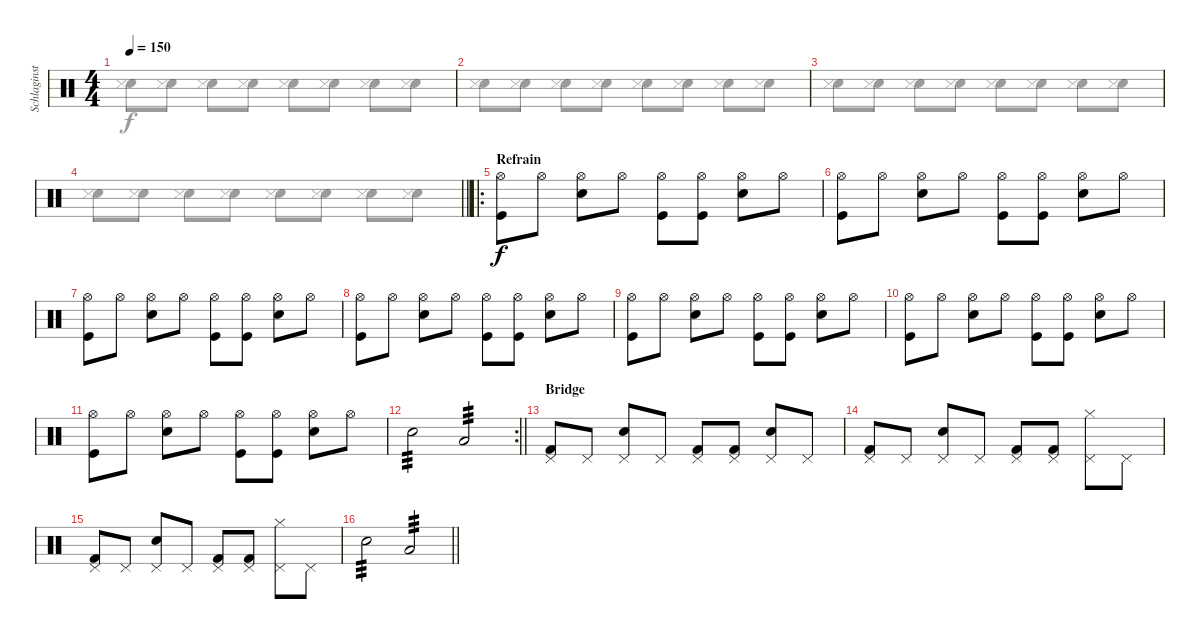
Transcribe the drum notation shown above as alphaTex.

\track ("Schlaginstrumente - Auswahl" "Schlaginst") {instrument percussion}
\staff {score}
\articulation defaults
\voice
\ts (4 4)
\tempo 150
\clef neutral
\ks c
|
|
|
\barLineRight lightlight
|
\ro
\section ("" "Refrain")
("Hi-Hat (open)" "Kick (hit)").8 "Hi-Hat (open)".8 ("Hi-Hat (open)" "Electric Snare (hit)").8 "Hi-Hat (open)".8 ("Hi-Hat (open)" "Kick (hit)").8 ("Hi-Hat (open)" "Kick (hit)").8 ("Hi-Hat (open)" "Electric Snare (hit)").8 "Hi-Hat (open)".8 |
("Hi-Hat (open)" "Kick (hit)").8 "Hi-Hat (open)".8 ("Hi-Hat (open)" "Electric Snare (hit)").8 "Hi-Hat (open)".8 ("Hi-Hat (open)" "Kick (hit)").8 ("Hi-Hat (open)" "Kick (hit)").8 ("Hi-Hat (open)" "Electric Snare (hit)").8 "Hi-Hat (open)".8 |
("Hi-Hat (open)" "Kick (hit)").8 "Hi-Hat (open)".8 ("Hi-Hat (open)" "Electric Snare (hit)").8 "Hi-Hat (open)".8 ("Hi-Hat (open)" "Kick (hit)").8 ("Hi-Hat (open)" "Kick (hit)").8 ("Hi-Hat (open)" "Electric Snare (hit)").8 "Hi-Hat (open)".8 |
("Hi-Hat (open)" "Kick (hit)").8 "Hi-Hat (open)".8 ("Hi-Hat (open)" "Electric Snare (hit)").8 "Hi-Hat (open)".8 ("Hi-Hat (open)" "Kick (hit)").8 ("Hi-Hat (open)" "Kick (hit)").8 ("Hi-Hat (open)" "Electric Snare (hit)").8 "Hi-Hat (open)".8 |
("Hi-Hat (open)" "Kick (hit)").8 "Hi-Hat (open)".8 ("Hi-Hat (open)" "Electric Snare (hit)").8 "Hi-Hat (open)".8 ("Hi-Hat (open)" "Kick (hit)").8 ("Hi-Hat (open)" "Kick (hit)").8 ("Hi-Hat (open)" "Electric Snare (hit)").8 "Hi-Hat (open)".8 |
("Hi-Hat (open)" "Kick (hit)").8 "Hi-Hat (open)".8 ("Hi-Hat (open)" "Electric Snare (hit)").8 "Hi-Hat (open)".8 ("Hi-Hat (open)" "Kick (hit)").8 ("Hi-Hat (open)" "Kick (hit)").8 ("Hi-Hat (open)" "Electric Snare (hit)").8 "Hi-Hat (open)".8 |
("Hi-Hat (open)" "Kick (hit)").8 "Hi-Hat (open)".8 ("Hi-Hat (open)" "Electric Snare (hit)").8 "Hi-Hat (open)".8 ("Hi-Hat (open)" "Kick (hit)").8 ("Hi-Hat (open)" "Kick (hit)").8 ("Hi-Hat (open)" "Electric Snare (hit)").8 "Hi-Hat (open)".8 |
\rc 2
\barLineRight lightlight "Electric Snare (hit)".2{tp 3} "Low Tom (hit)".2{tp 3}
|
\section ("" "Bridge")
("Pedal Hi-Hat (hit)" "Kick (hit) 2").8 "Pedal Hi-Hat (hit)".8 ("Pedal Hi-Hat (hit)" "Electric Snare (hit)").8 "Pedal Hi-Hat (hit)".8 ("Pedal Hi-Hat (hit)" "Kick (hit) 2").8 ("Pedal Hi-Hat (hit)" "Kick (hit) 2").8 ("Pedal Hi-Hat (hit)" "Electric Snare (hit)").8 "Pedal Hi-Hat (hit)".8 |
("Pedal Hi-Hat (hit)" "Kick (hit) 2").8 "Pedal Hi-Hat (hit)".8 ("Pedal Hi-Hat (hit)" "Electric Snare (hit)").8 "Pedal Hi-Hat (hit)".8 ("Pedal Hi-Hat (hit)" "Kick (hit) 2").8 ("Pedal Hi-Hat (hit)" "Kick (hit) 2").8 ("Pedal Hi-Hat (hit)" "Hi-Hat (closed)").8 "Pedal Hi-Hat (hit)".8 |
("Pedal Hi-Hat (hit)" "Kick (hit) 2").8 "Pedal Hi-Hat (hit)".8 ("Pedal Hi-Hat (hit)" "Electric Snare (hit)").8 "Pedal Hi-Hat (hit)".8 ("Pedal Hi-Hat (hit)" "Kick (hit) 2").8 ("Pedal Hi-Hat (hit)" "Kick (hit) 2").8 ("Pedal Hi-Hat (hit)" "Hi-Hat (closed)").8 "Pedal Hi-Hat (hit)".8 |
\barLineRight lightlight "Electric Snare (hit)".2{tp 3} "Low Tom (hit)".2{tp 3}
\voice
\clef neutral
\ottava regular
\simile none
\ks c
("Electric Snare (hit)" "Snare (side stick) 3").8{dy f} ("Electric Snare (hit)" "Snare (side stick) 3").8 ("Electric Snare (hit)" "Snare (side stick) 3").8 ("Electric Snare (hit)" "Snare (side stick) 3").8 ("Electric Snare (hit)" "Snare (side stick) 3").8 ("Electric Snare (hit)" "Snare (side stick) 3").8 ("Electric Snare (hit)" "Snare (side stick) 3").8 ("Electric Snare (hit)" "Snare (side stick) 3").8 |
("Electric Snare (hit)" "Snare (side stick) 3").8 ("Electric Snare (hit)" "Snare (side stick) 3").8 ("Electric Snare (hit)" "Snare (side stick) 3").8 ("Electric Snare (hit)" "Snare (side stick) 3").8 ("Electric Snare (hit)" "Snare (side stick) 3").8 ("Electric Snare (hit)" "Snare (side stick) 3").8 ("Electric Snare (hit)" "Snare (side stick) 3").8 ("Electric Snare (hit)" "Snare (side stick) 3").8 |
("Electric Snare (hit)" "Snare (side stick) 3").8 ("Electric Snare (hit)" "Snare (side stick) 3").8 ("Electric Snare (hit)" "Snare (side stick) 3").8 ("Electric Snare (hit)" "Snare (side stick) 3").8 ("Electric Snare (hit)" "Snare (side stick) 3").8 ("Electric Snare (hit)" "Snare (side stick) 3").8 ("Electric Snare (hit)" "Snare (side stick) 3").8 ("Electric Snare (hit)" "Snare (side stick) 3").8 |
\barLineRight lightlight
("Electric Snare (hit)" "Snare (side stick) 3").8 ("Electric Snare (hit)" "Snare (side stick) 3").8 ("Electric Snare (hit)" "Snare (side stick) 3").8 ("Electric Snare (hit)" "Snare (side stick) 3").8 ("Electric Snare (hit)" "Snare (side stick) 3").8 ("Electric Snare (hit)" "Snare (side stick) 3").8 ("Electric Snare (hit)" "Snare (side stick) 3").8 ("Electric Snare (hit)" "Snare (side stick) 3").8 |
|
|
|
|
|
|
|
\barLineRight lightlight
|
|
|
|
\barLineRight lightlight
